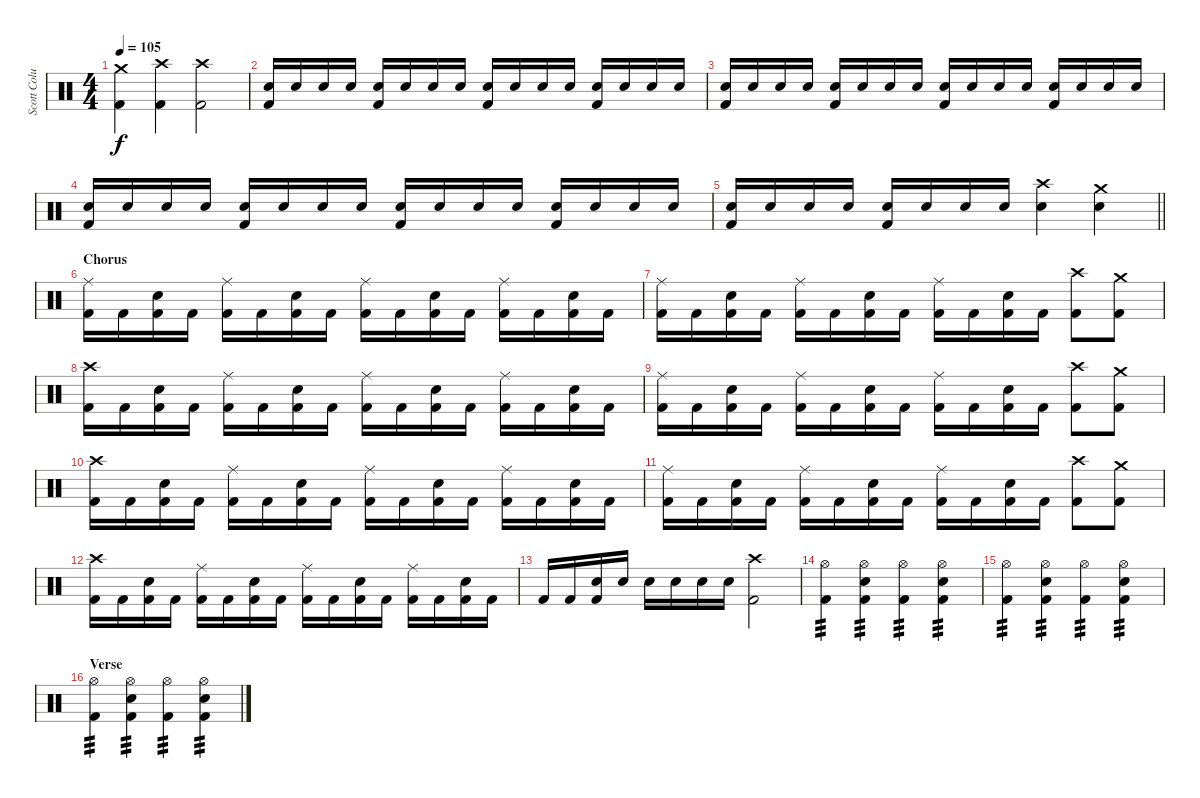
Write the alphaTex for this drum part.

\track ("Scott Columbus" "Scott Colu") {instrument percussion}
\staff {score}
\articulation defaults
\ts (4 4)
\tempo 105
\clef neutral
\ks c
("Crash medium (hit)" "Kick (hit) 2").4{dy f} ("Crash high (hit)" "Kick (hit) 2").4 ("Crash high (hit)" "Kick (hit) 2").2 |
("Kick (hit) 2" "Snare (hit) 2").16 "Snare (hit) 2".16 "Snare (hit) 2".16 "Snare (hit) 2".16 ("Kick (hit) 2" "Snare (hit) 2").16 "Snare (hit) 2".16 "Snare (hit) 2".16 "Snare (hit) 2".16 ("Kick (hit) 2" "Snare (hit) 2").16 "Snare (hit) 2".16 "Snare (hit) 2".16 "Snare (hit) 2".16 ("Kick (hit) 2" "Snare (hit) 2").16 "Snare (hit) 2".16 "Snare (hit) 2".16 "Snare (hit) 2".16 |
("Kick (hit) 2" "Snare (hit) 2").16 "Snare (hit) 2".16 "Snare (hit) 2".16 "Snare (hit) 2".16 ("Kick (hit) 2" "Snare (hit) 2").16 "Snare (hit) 2".16 "Snare (hit) 2".16 "Snare (hit) 2".16 ("Kick (hit) 2" "Snare (hit) 2").16 "Snare (hit) 2".16 "Snare (hit) 2".16 "Snare (hit) 2".16 ("Kick (hit) 2" "Snare (hit) 2").16 "Snare (hit) 2".16 "Snare (hit) 2".16 "Snare (hit) 2".16 |
("Kick (hit) 2" "Snare (hit) 2").16 "Snare (hit) 2".16 "Snare (hit) 2".16 "Snare (hit) 2".16 ("Kick (hit) 2" "Snare (hit) 2").16 "Snare (hit) 2".16 "Snare (hit) 2".16 "Snare (hit) 2".16 ("Kick (hit) 2" "Snare (hit) 2").16 "Snare (hit) 2".16 "Snare (hit) 2".16 "Snare (hit) 2".16 ("Kick (hit) 2" "Snare (hit) 2").16 "Snare (hit) 2".16 "Snare (hit) 2".16 "Snare (hit) 2".16 |
\barLineRight lightlight
("Kick (hit) 2" "Snare (hit) 2").16 "Snare (hit) 2".16 "Snare (hit) 2".16 "Snare (hit) 2".16 ("Kick (hit) 2" "Snare (hit) 2").16 "Snare (hit) 2".16 "Snare (hit) 2".16 "Snare (hit) 2".16 ("Crash high (hit)" "Snare (hit) 2").4 ("Crash medium (hit)" "Snare (hit) 2").4 |
\section ("" "Chorus")
("Ride (middle)" "Kick (hit) 2").16{volume 10} "Kick (hit) 2".16 ("Snare (hit) 2" "Kick (hit) 2").16 "Kick (hit) 2".16 ("Ride (middle)" "Kick (hit) 2").16 "Kick (hit) 2".16 ("Snare (hit) 2" "Kick (hit) 2").16 "Kick (hit) 2".16 ("Ride (middle)" "Kick (hit) 2").16 "Kick (hit) 2".16 ("Snare (hit) 2" "Kick (hit) 2").16 "Kick (hit) 2".16 ("Ride (middle)" "Kick (hit) 2").16 "Kick (hit) 2".16 ("Snare (hit) 2" "Kick (hit) 2").16 "Kick (hit) 2".16 |
("Ride (middle)" "Kick (hit) 2").16 "Kick (hit) 2".16 ("Snare (hit) 2" "Kick (hit) 2").16 "Kick (hit) 2".16 ("Ride (middle)" "Kick (hit) 2").16 "Kick (hit) 2".16 ("Snare (hit) 2" "Kick (hit) 2").16 "Kick (hit) 2".16 ("Ride (middle)" "Kick (hit) 2").16 "Kick (hit) 2".16 ("Snare (hit) 2" "Kick (hit) 2").16 "Kick (hit) 2".16 ("Crash high (hit)" "Kick (hit) 2").8 ("Crash medium (hit)" "Kick (hit) 2").8 |
("Crash high (hit)" "Kick (hit) 2").16 "Kick (hit) 2".16 ("Snare (hit) 2" "Kick (hit) 2").16 "Kick (hit) 2".16 ("Ride (middle)" "Kick (hit) 2").16 "Kick (hit) 2".16 ("Snare (hit) 2" "Kick (hit) 2").16 "Kick (hit) 2".16 ("Ride (middle)" "Kick (hit) 2").16 "Kick (hit) 2".16 ("Snare (hit) 2" "Kick (hit) 2").16 "Kick (hit) 2".16 ("Ride (middle)" "Kick (hit) 2").16 "Kick (hit) 2".16 ("Snare (hit) 2" "Kick (hit) 2").16 "Kick (hit) 2".16 |
("Ride (middle)" "Kick (hit) 2").16 "Kick (hit) 2".16 ("Snare (hit) 2" "Kick (hit) 2").16 "Kick (hit) 2".16 ("Ride (middle)" "Kick (hit) 2").16 "Kick (hit) 2".16 ("Snare (hit) 2" "Kick (hit) 2").16 "Kick (hit) 2".16 ("Ride (middle)" "Kick (hit) 2").16 "Kick (hit) 2".16 ("Snare (hit) 2" "Kick (hit) 2").16 "Kick (hit) 2".16 ("Crash high (hit)" "Kick (hit) 2").8 ("Crash medium (hit)" "Kick (hit) 2").8 |
("Crash high (hit)" "Kick (hit) 2").16 "Kick (hit) 2".16 ("Snare (hit) 2" "Kick (hit) 2").16 "Kick (hit) 2".16 ("Ride (middle)" "Kick (hit) 2").16 "Kick (hit) 2".16 ("Snare (hit) 2" "Kick (hit) 2").16 "Kick (hit) 2".16 ("Ride (middle)" "Kick (hit) 2").16 "Kick (hit) 2".16 ("Snare (hit) 2" "Kick (hit) 2").16 "Kick (hit) 2".16 ("Ride (middle)" "Kick (hit) 2").16 "Kick (hit) 2".16 ("Snare (hit) 2" "Kick (hit) 2").16 "Kick (hit) 2".16 |
("Ride (middle)" "Kick (hit) 2").16 "Kick (hit) 2".16 ("Snare (hit) 2" "Kick (hit) 2").16 "Kick (hit) 2".16 ("Ride (middle)" "Kick (hit) 2").16 "Kick (hit) 2".16 ("Snare (hit) 2" "Kick (hit) 2").16 "Kick (hit) 2".16 ("Ride (middle)" "Kick (hit) 2").16 "Kick (hit) 2".16 ("Snare (hit) 2" "Kick (hit) 2").16 "Kick (hit) 2".16 ("Crash high (hit)" "Kick (hit) 2").8 ("Crash medium (hit)" "Kick (hit) 2").8 |
("Crash high (hit)" "Kick (hit) 2").16 "Kick (hit) 2".16 ("Snare (hit) 2" "Kick (hit) 2").16 "Kick (hit) 2".16 ("Ride (middle)" "Kick (hit) 2").16 "Kick (hit) 2".16 ("Snare (hit) 2" "Kick (hit) 2").16 "Kick (hit) 2".16 ("Ride (middle)" "Kick (hit) 2").16 "Kick (hit) 2".16 ("Snare (hit) 2" "Kick (hit) 2").16 "Kick (hit) 2".16 ("Ride (middle)" "Kick (hit) 2").16 "Kick (hit) 2".16 ("Snare (hit) 2" "Kick (hit) 2").16 "Kick (hit) 2".16 |
"Kick (hit) 2".16 "Kick (hit) 2".16 ("Snare (hit) 2" "Kick (hit) 2").16 "Snare (hit) 2".16 "Snare (hit) 2".16 "Snare (hit) 2".16 "Snare (hit) 2".16 "Snare (hit) 2".16 ("Crash high (hit)" "Kick (hit) 2").2 |
("Hi-Hat (open)" "Kick (hit) 2").4{tp 3 volume 6} ("Hi-Hat (open)" "Snare (hit) 2" "Kick (hit) 2").4{tp 3} ("Hi-Hat (open)" "Kick (hit) 2").4{tp 3} ("Hi-Hat (open)" "Snare (hit) 2" "Kick (hit) 2").4{tp 3} |
("Hi-Hat (open)" "Kick (hit) 2").4{tp 3} ("Hi-Hat (open)" "Snare (hit) 2" "Kick (hit) 2").4{tp 3} ("Hi-Hat (open)" "Kick (hit) 2").4{tp 3} ("Hi-Hat (open)" "Snare (hit) 2" "Kick (hit) 2").4{tp 3} |
\section ("" "Verse")
("Hi-Hat (open)" "Kick (hit) 2").4{tp 3} ("Hi-Hat (open)" "Snare (hit) 2" "Kick (hit) 2").4{tp 3} ("Hi-Hat (open)" "Kick (hit) 2").4{tp 3} ("Hi-Hat (open)" "Snare (hit) 2" "Kick (hit) 2").4{tp 3}
